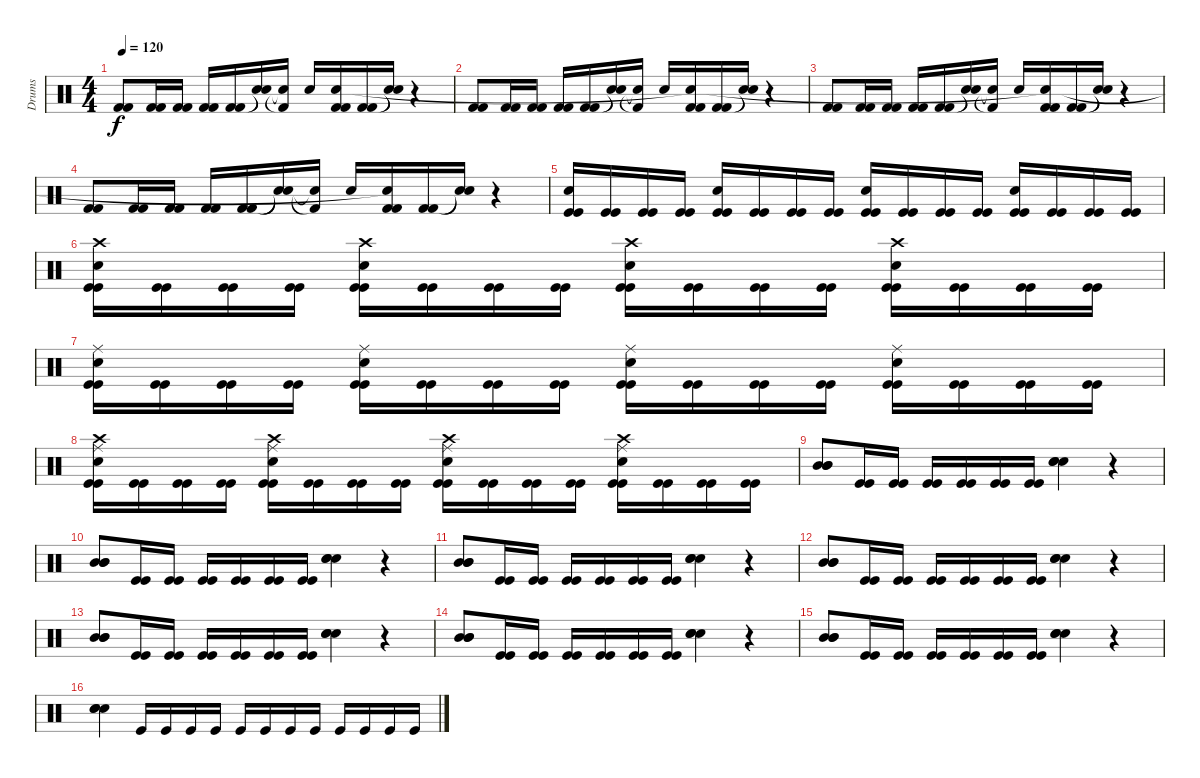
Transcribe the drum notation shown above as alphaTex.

\track ("Drums" "Drums") {instrument percussion}
\staff {score}
\articulation defaults
\ts (4 4)
\tempo 120
\clef neutral
\ks c
("Kick (hit) 2" "Kick (hit) 2").8{dy f} ("Kick (hit) 2" "Kick (hit) 2").16 ("Kick (hit) 2" "Kick (hit) 2").16 ("Kick (hit) 2" "Kick (hit) 2").16 ("Kick (hit) 2" "Kick (hit) 2").16 ("Snare (hit)"{t} "Snare (hit)"{t}).16 ("Kick (hit) 2"{t} "Snare (hit)"{t}).16 "Snare (hit) 2".16 ("Kick (hit) 2" "Kick (hit) 2" "Snare (hit)"{t}).16 ("Kick (hit) 2" "Kick (hit) 2").16 ("Snare (hit)"{t} "Snare (hit)"{t}).16 r.4 |
("Kick (hit) 2" "Kick (hit) 2").8 ("Kick (hit) 2" "Kick (hit) 2").16 ("Kick (hit) 2" "Kick (hit) 2").16 ("Kick (hit) 2" "Kick (hit) 2").16 ("Kick (hit) 2" "Kick (hit) 2").16 ("Snare (hit)"{t} "Snare (hit)"{t}).16 ("Kick (hit) 2"{t} "Snare (hit)"{t}).16 "Snare (hit) 2".16 ("Kick (hit) 2" "Kick (hit) 2" "Snare (hit)"{t}).16 ("Kick (hit) 2" "Kick (hit) 2").16 ("Snare (hit)"{t} "Snare (hit)"{t}).16 r.4 |
("Kick (hit) 2" "Kick (hit) 2").8 ("Kick (hit) 2" "Kick (hit) 2").16 ("Kick (hit) 2" "Kick (hit) 2").16 ("Kick (hit) 2" "Kick (hit) 2").16 ("Kick (hit) 2" "Kick (hit) 2").16 ("Snare (hit)"{t} "Snare (hit)"{t}).16 ("Kick (hit) 2"{t} "Snare (hit)"{t}).16 "Snare (hit) 2".16 ("Kick (hit) 2" "Kick (hit) 2" "Snare (hit)"{t}).16 ("Kick (hit) 2" "Kick (hit) 2").16 ("Snare (hit)"{t} "Snare (hit)"{t}).16 r.4 |
("Kick (hit) 2" "Kick (hit) 2").8 ("Kick (hit) 2" "Kick (hit) 2").16 ("Kick (hit) 2" "Kick (hit) 2").16 ("Kick (hit) 2" "Kick (hit) 2").16 ("Kick (hit) 2" "Kick (hit) 2").16 ("Snare (hit)"{t} "Snare (hit)"{t}).16 ("Kick (hit) 2"{t} "Snare (hit)"{t}).16 "Snare (hit) 2".16 ("Kick (hit) 2" "Kick (hit) 2" "Snare (hit)"{t}).16 ("Kick (hit) 2" "Kick (hit) 2").16 ("Snare (hit)"{t} "Snare (hit)"{t}).16 r.4 |
("Snare (hit) 2" "Kick (hit)" "Kick (hit)").16 ("Kick (hit)" "Kick (hit)").16 ("Kick (hit)" "Kick (hit)").16 ("Kick (hit)" "Kick (hit)").16 ("Snare (hit) 2" "Kick (hit)" "Kick (hit)").16 ("Kick (hit)" "Kick (hit)").16 ("Kick (hit)" "Kick (hit)").16 ("Kick (hit)" "Kick (hit)").16 ("Snare (hit) 2" "Kick (hit)" "Kick (hit)").16 ("Kick (hit)" "Kick (hit)").16 ("Kick (hit)" "Kick (hit)").16 ("Kick (hit)" "Kick (hit)").16 ("Snare (hit) 2" "Kick (hit)" "Kick (hit)").16 ("Kick (hit)" "Kick (hit)").16 ("Kick (hit)" "Kick (hit)").16 ("Kick (hit)" "Kick (hit)").16 |
("Crash high (hit)" "Snare (hit) 2" "Kick (hit)" "Kick (hit)").16 ("Kick (hit)" "Kick (hit)").16 ("Kick (hit)" "Kick (hit)").16 ("Kick (hit)" "Kick (hit)").16 ("Crash high (hit)" "Snare (hit) 2" "Kick (hit)" "Kick (hit)").16 ("Kick (hit)" "Kick (hit)").16 ("Kick (hit)" "Kick (hit)").16 ("Kick (hit)" "Kick (hit)").16 ("Crash high (hit)" "Snare (hit) 2" "Kick (hit)" "Kick (hit)").16 ("Kick (hit)" "Kick (hit)").16 ("Kick (hit)" "Kick (hit)").16 ("Kick (hit)" "Kick (hit)").16 ("Crash high (hit)" "Snare (hit) 2" "Kick (hit)" "Kick (hit)").16 ("Kick (hit)" "Kick (hit)").16 ("Kick (hit)" "Kick (hit)").16 ("Kick (hit)" "Kick (hit)").16 |
("Ride (middle)" "Snare (hit) 2" "Kick (hit)" "Kick (hit)").16 ("Kick (hit)" "Kick (hit)").16 ("Kick (hit)" "Kick (hit)").16 ("Kick (hit)" "Kick (hit)").16 ("Ride (middle)" "Snare (hit) 2" "Kick (hit)" "Kick (hit)").16 ("Kick (hit)" "Kick (hit)").16 ("Kick (hit)" "Kick (hit)").16 ("Kick (hit)" "Kick (hit)").16 ("Ride (middle)" "Snare (hit) 2" "Kick (hit)" "Kick (hit)").16 ("Kick (hit)" "Kick (hit)").16 ("Kick (hit)" "Kick (hit)").16 ("Kick (hit)" "Kick (hit)").16 ("Ride (middle)" "Snare (hit) 2" "Kick (hit)" "Kick (hit)").16 ("Kick (hit)" "Kick (hit)").16 ("Kick (hit)" "Kick (hit)").16 ("Kick (hit)" "Kick (hit)").16 |
("Ride (middle)" "Crash high (hit)" "Snare (hit) 2" "Kick (hit)" "Kick (hit)").16 ("Kick (hit)" "Kick (hit)").16 ("Kick (hit)" "Kick (hit)").16 ("Kick (hit)" "Kick (hit)").16 ("Ride (middle)" "Crash high (hit)" "Snare (hit) 2" "Kick (hit)" "Kick (hit)").16 ("Kick (hit)" "Kick (hit)").16 ("Kick (hit)" "Kick (hit)").16 ("Kick (hit)" "Kick (hit)").16 ("Ride (middle)" "Crash high (hit)" "Snare (hit) 2" "Kick (hit)" "Kick (hit)").16 ("Kick (hit)" "Kick (hit)").16 ("Kick (hit)" "Kick (hit)").16 ("Kick (hit)" "Kick (hit)").16 ("Ride (middle)" "Crash high (hit)" "Snare (hit) 2" "Kick (hit)" "Kick (hit)").16 ("Kick (hit)" "Kick (hit)").16 ("Kick (hit)" "Kick (hit)").16 ("Kick (hit)" "Kick (hit)").16 |
("Mid Tom (hit)" "Mid Tom (hit)" "Mid Tom (hit)").8 ("Kick (hit)" "Kick (hit)").16 ("Kick (hit)" "Kick (hit)").16 ("Kick (hit)" "Kick (hit)").16 ("Kick (hit)" "Kick (hit)").16 ("Kick (hit)" "Kick (hit)").16 ("Kick (hit)" "Kick (hit)").16 ("Snare (hit) 2" "Snare (hit) 2" "Snare (hit) 2").4 r.4 |
("Mid Tom (hit)" "Mid Tom (hit)" "Mid Tom (hit)").8 ("Kick (hit)" "Kick (hit)").16 ("Kick (hit)" "Kick (hit)").16 ("Kick (hit)" "Kick (hit)").16 ("Kick (hit)" "Kick (hit)").16 ("Kick (hit)" "Kick (hit)").16 ("Kick (hit)" "Kick (hit)").16 ("Snare (hit) 2" "Snare (hit) 2" "Snare (hit) 2").4 r.4 |
("Mid Tom (hit)" "Mid Tom (hit)" "Mid Tom (hit)").8 ("Kick (hit)" "Kick (hit)").16 ("Kick (hit)" "Kick (hit)").16 ("Kick (hit)" "Kick (hit)").16 ("Kick (hit)" "Kick (hit)").16 ("Kick (hit)" "Kick (hit)").16 ("Kick (hit)" "Kick (hit)").16 ("Snare (hit) 2" "Snare (hit) 2" "Snare (hit) 2").4 r.4 |
("Mid Tom (hit)" "Mid Tom (hit)" "Mid Tom (hit)").8 ("Kick (hit)" "Kick (hit)").16 ("Kick (hit)" "Kick (hit)").16 ("Kick (hit)" "Kick (hit)").16 ("Kick (hit)" "Kick (hit)").16 ("Kick (hit)" "Kick (hit)").16 ("Kick (hit)" "Kick (hit)").16 ("Snare (hit) 2" "Snare (hit) 2" "Snare (hit) 2").4 r.4 |
("Mid Tom (hit)" "Mid Tom (hit)" "Mid Tom (hit)").8 ("Kick (hit)" "Kick (hit)").16 ("Kick (hit)" "Kick (hit)").16 ("Kick (hit)" "Kick (hit)").16 ("Kick (hit)" "Kick (hit)").16 ("Kick (hit)" "Kick (hit)").16 ("Kick (hit)" "Kick (hit)").16 ("Snare (hit) 2" "Snare (hit) 2" "Snare (hit) 2").4 r.4 |
("Mid Tom (hit)" "Mid Tom (hit)" "Mid Tom (hit)").8 ("Kick (hit)" "Kick (hit)").16 ("Kick (hit)" "Kick (hit)").16 ("Kick (hit)" "Kick (hit)").16 ("Kick (hit)" "Kick (hit)").16 ("Kick (hit)" "Kick (hit)").16 ("Kick (hit)" "Kick (hit)").16 ("Snare (hit) 2" "Snare (hit) 2" "Snare (hit) 2").4 r.4 |
("Mid Tom (hit)" "Mid Tom (hit)" "Mid Tom (hit)").8 ("Kick (hit)" "Kick (hit)").16 ("Kick (hit)" "Kick (hit)").16 ("Kick (hit)" "Kick (hit)").16 ("Kick (hit)" "Kick (hit)").16 ("Kick (hit)" "Kick (hit)").16 ("Kick (hit)" "Kick (hit)").16 ("Snare (hit) 2" "Snare (hit) 2" "Snare (hit) 2").4 r.4 |
("Snare (hit) 2" "Snare (hit) 2" "Snare (hit) 2").4 "Kick (hit)".16 "Kick (hit)".16 "Kick (hit)".16 "Kick (hit)".16 "Kick (hit)".16 "Kick (hit)".16 "Kick (hit)".16 "Kick (hit)".16 "Kick (hit)".16 "Kick (hit)".16 "Kick (hit)".16 "Kick (hit)".16
